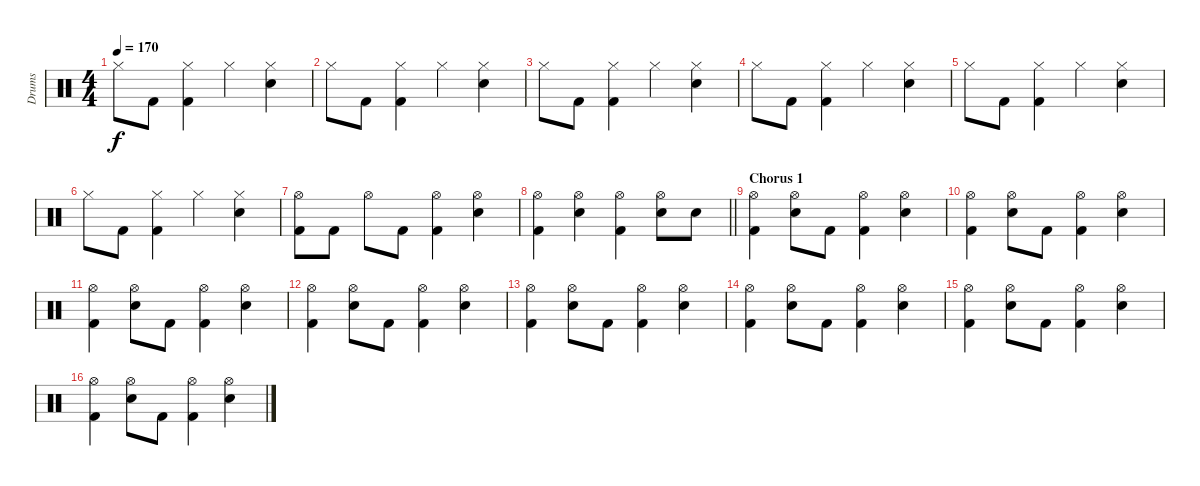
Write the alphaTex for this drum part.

\track ("Drums" "Drums") {instrument percussion}
\staff {score}
\articulation defaults
\ts (4 4)
\tempo 170
\clef neutral
\ks c "Hi-Hat (closed)".8{dy f} "Kick (hit) 2".8
("Hi-Hat (closed)" "Kick (hit) 2").4 "Hi-Hat (closed)".4 ("Hi-Hat (closed)" "Electric Snare (hit)").4 |
"Hi-Hat (closed)".8 "Kick (hit) 2".8 ("Hi-Hat (closed)" "Kick (hit) 2").4 "Hi-Hat (closed)".4 ("Hi-Hat (closed)" "Electric Snare (hit)").4 |
"Hi-Hat (closed)".8 "Kick (hit) 2".8 ("Hi-Hat (closed)" "Kick (hit) 2").4 "Hi-Hat (closed)".4 ("Hi-Hat (closed)" "Electric Snare (hit)").4 |
"Hi-Hat (closed)".8 "Kick (hit) 2".8 ("Hi-Hat (closed)" "Kick (hit) 2").4 "Hi-Hat (closed)".4 ("Hi-Hat (closed)" "Electric Snare (hit)").4 |
"Hi-Hat (closed)".8 "Kick (hit) 2".8 ("Hi-Hat (closed)" "Kick (hit) 2").4 "Hi-Hat (closed)".4 ("Hi-Hat (closed)" "Electric Snare (hit)").4 |
"Hi-Hat (closed)".8 "Kick (hit) 2".8 ("Hi-Hat (closed)" "Kick (hit) 2").4 "Hi-Hat (closed)".4 ("Hi-Hat (closed)" "Electric Snare (hit)").4 |
("Hi-Hat (open)" "Kick (hit) 2").8 "Kick (hit) 2".8 "Hi-Hat (open)".8 "Kick (hit) 2".8 ("Hi-Hat (open)" "Kick (hit) 2").4 ("Hi-Hat (open)" "Electric Snare (hit)").4 |
\barLineRight lightlight
("Hi-Hat (open)" "Kick (hit) 2").4 ("Hi-Hat (open)" "Electric Snare (hit)").4 ("Hi-Hat (open)" "Kick (hit) 2").4 ("Hi-Hat (open)" "Electric Snare (hit)").8 "Electric Snare (hit)".8 |
\section ("" "Chorus 1")
("Hi-Hat (open)" "Kick (hit) 2").4 ("Hi-Hat (open)" "Electric Snare (hit)").8 "Kick (hit) 2".8 ("Hi-Hat (open)" "Kick (hit) 2").4 ("Hi-Hat (open)" "Electric Snare (hit)").4 |
("Hi-Hat (open)" "Kick (hit) 2").4 ("Hi-Hat (open)" "Electric Snare (hit)").8 "Kick (hit) 2".8 ("Hi-Hat (open)" "Kick (hit) 2").4 ("Hi-Hat (open)" "Electric Snare (hit)").4 |
("Hi-Hat (open)" "Kick (hit) 2").4 ("Hi-Hat (open)" "Electric Snare (hit)").8 "Kick (hit) 2".8 ("Hi-Hat (open)" "Kick (hit) 2").4 ("Hi-Hat (open)" "Electric Snare (hit)").4 |
("Hi-Hat (open)" "Kick (hit) 2").4 ("Hi-Hat (open)" "Electric Snare (hit)").8 "Kick (hit) 2".8 ("Hi-Hat (open)" "Kick (hit) 2").4 ("Hi-Hat (open)" "Electric Snare (hit)").4 |
("Hi-Hat (open)" "Kick (hit) 2").4 ("Hi-Hat (open)" "Electric Snare (hit)").8 "Kick (hit) 2".8 ("Hi-Hat (open)" "Kick (hit) 2").4 ("Hi-Hat (open)" "Electric Snare (hit)").4 |
("Hi-Hat (open)" "Kick (hit) 2").4 ("Hi-Hat (open)" "Electric Snare (hit)").8 "Kick (hit) 2".8 ("Hi-Hat (open)" "Kick (hit) 2").4 ("Hi-Hat (open)" "Electric Snare (hit)").4 |
("Hi-Hat (open)" "Kick (hit) 2").4 ("Hi-Hat (open)" "Electric Snare (hit)").8 "Kick (hit) 2".8 ("Hi-Hat (open)" "Kick (hit) 2").4 ("Hi-Hat (open)" "Electric Snare (hit)").4 |
("Hi-Hat (open)" "Kick (hit) 2").4 ("Hi-Hat (open)" "Electric Snare (hit)").8 "Kick (hit) 2".8 ("Hi-Hat (open)" "Kick (hit) 2").4 ("Hi-Hat (open)" "Electric Snare (hit)").4
